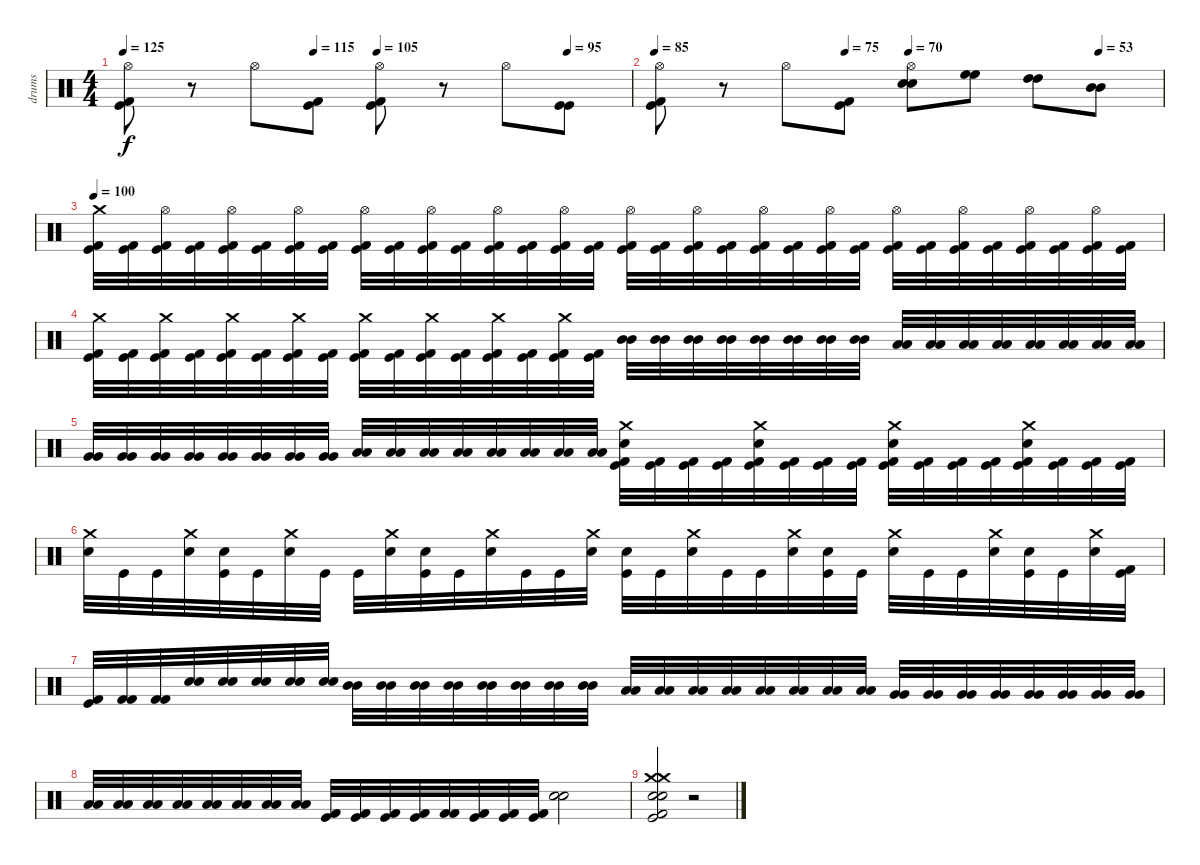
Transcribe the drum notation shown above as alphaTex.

\track ("drums" "drums") {instrument percussion}
\staff {score}
\articulation defaults
\ts (4 4)
\tempo 125
\tempo (115 0.375)
\tempo (105 0.5)
\tempo (95 0.875)
\clef neutral
\ks c
("Kick (hit)" "Kick (hit) 2" "Hi-Hat (open)").8{dy f} r.8 "Hi-Hat (open)".8 ("Kick (hit)" "Kick (hit) 2").8 ("Kick (hit)" "Kick (hit) 2" "Hi-Hat (open)").8 r.8 "Hi-Hat (open)".8 ("Kick (hit)" "Kick (hit)").8 |
\tempo 85
\tempo (75 0.375)
\tempo (70 0.5)
\tempo (53 0.875)
("Kick (hit)" "Kick (hit) 2" "Hi-Hat (open)").8 r.8 "Hi-Hat (open)".8 ("Kick (hit)" "Kick (hit) 2").8 ("Snare (hit) 2" "Snare (hit) 2" "Hi-Hat (open)").8 ("High Floor Tom (hit)" "High Floor Tom (hit)").8 ("High Tom (hit)" "High Tom (hit)").8 ("Mid Tom (hit)" "Mid Tom (hit)").8 |
\tempo 100
("Kick (hit)" "Kick (hit) 2" "Crash medium (hit)").32 ("Kick (hit)" "Kick (hit) 2").32 ("Kick (hit)" "Kick (hit) 2" "Hi-Hat (open)").32 ("Kick (hit)" "Kick (hit) 2").32 ("Kick (hit)" "Kick (hit) 2" "Hi-Hat (open)").32 ("Kick (hit)" "Kick (hit) 2").32 ("Kick (hit)" "Kick (hit) 2" "Hi-Hat (open)").32 ("Kick (hit)" "Kick (hit) 2").32 ("Kick (hit)" "Kick (hit) 2" "Hi-Hat (open)").32 ("Kick (hit)" "Kick (hit) 2").32 ("Kick (hit)" "Kick (hit) 2" "Hi-Hat (open)").32 ("Kick (hit)" "Kick (hit) 2").32 ("Kick (hit)" "Kick (hit) 2" "Hi-Hat (open)").32 ("Kick (hit)" "Kick (hit) 2").32 ("Kick (hit)" "Kick (hit) 2" "Hi-Hat (open)").32 ("Kick (hit)" "Kick (hit) 2").32 ("Kick (hit)" "Kick (hit) 2" "Hi-Hat (open)").32 ("Kick (hit)" "Kick (hit) 2").32 ("Kick (hit)" "Kick (hit) 2" "Hi-Hat (open)").32 ("Kick (hit)" "Kick (hit) 2").32 ("Kick (hit)" "Kick (hit) 2" "Hi-Hat (open)").32 ("Kick (hit)" "Kick (hit) 2").32 ("Kick (hit)" "Kick (hit) 2" "Hi-Hat (open)").32 ("Kick (hit)" "Kick (hit) 2").32 ("Kick (hit)" "Kick (hit) 2" "Hi-Hat (open)").32 ("Kick (hit)" "Kick (hit) 2").32 ("Kick (hit)" "Kick (hit) 2" "Hi-Hat (open)").32 ("Kick (hit)" "Kick (hit) 2").32 ("Kick (hit)" "Kick (hit) 2" "Hi-Hat (open)").32 ("Kick (hit)" "Kick (hit) 2").32 ("Kick (hit)" "Kick (hit) 2" "Hi-Hat (open)").32 ("Kick (hit)" "Kick (hit) 2").32 |
("Kick (hit)" "Kick (hit) 2" "Crash medium (hit)").32 ("Kick (hit)" "Kick (hit) 2").32 ("Kick (hit)" "Kick (hit) 2" "Crash medium (hit)").32 ("Kick (hit)" "Kick (hit) 2").32 ("Kick (hit)" "Kick (hit) 2" "Crash medium (hit)").32 ("Kick (hit)" "Kick (hit) 2").32 ("Kick (hit)" "Kick (hit) 2" "Crash medium (hit)").32 ("Kick (hit)" "Kick (hit) 2").32 ("Kick (hit)" "Kick (hit) 2" "Crash medium (hit)").32 ("Kick (hit)" "Kick (hit) 2").32 ("Kick (hit)" "Kick (hit) 2" "Crash medium (hit)").32 ("Kick (hit)" "Kick (hit) 2").32 ("Kick (hit)" "Kick (hit) 2" "Crash medium (hit)").32 ("Kick (hit)" "Kick (hit) 2").32 ("Kick (hit)" "Kick (hit) 2" "Crash medium (hit)").32 ("Kick (hit)" "Kick (hit) 2").32 ("Mid Tom (hit)" "Mid Tom (hit)").32 ("Mid Tom (hit)" "Mid Tom (hit)").32 ("Mid Tom (hit)" "Mid Tom (hit)").32 ("Mid Tom (hit)" "Mid Tom (hit)").32 ("Mid Tom (hit)" "Mid Tom (hit)").32 ("Mid Tom (hit)" "Mid Tom (hit)").32 ("Mid Tom (hit)" "Mid Tom (hit)").32 ("Mid Tom (hit)" "Mid Tom (hit)").32 ("Low Tom (hit)" "Low Tom (hit)").32 ("Low Tom (hit)" "Low Tom (hit)").32 ("Low Tom (hit)" "Low Tom (hit)").32 ("Low Tom (hit)" "Low Tom (hit)").32 ("Low Tom (hit)" "Low Tom (hit)").32 ("Low Tom (hit)" "Low Tom (hit)").32 ("Low Tom (hit)" "Low Tom (hit)").32 ("Low Tom (hit)" "Low Tom (hit)").32 |
("Very Low Tom (hit)" "Very Low Tom (hit)").32 ("Very Low Tom (hit)" "Very Low Tom (hit)").32 ("Very Low Tom (hit)" "Very Low Tom (hit)").32 ("Very Low Tom (hit)" "Very Low Tom (hit)").32 ("Very Low Tom (hit)" "Very Low Tom (hit)").32 ("Very Low Tom (hit)" "Very Low Tom (hit)").32 ("Very Low Tom (hit)" "Very Low Tom (hit)").32 ("Very Low Tom (hit)" "Very Low Tom (hit)").32 ("Low Floor Tom (hit)" "Low Floor Tom (hit)").32 ("Low Floor Tom (hit)" "Low Floor Tom (hit)").32 ("Low Floor Tom (hit)" "Low Floor Tom (hit)").32 ("Low Floor Tom (hit)" "Low Floor Tom (hit)").32 ("Low Floor Tom (hit)" "Low Floor Tom (hit)").32 ("Low Floor Tom (hit)" "Low Floor Tom (hit)").32 ("Low Floor Tom (hit)" "Low Floor Tom (hit)").32 ("Low Floor Tom (hit)" "Low Floor Tom (hit)").32 ("Kick (hit)" "Kick (hit) 2" "Snare (hit) 2" "Crash medium (hit)").32 ("Kick (hit)" "Kick (hit) 2").32 ("Kick (hit)" "Kick (hit) 2").32 ("Kick (hit)" "Kick (hit) 2").32 ("Kick (hit)" "Kick (hit) 2" "Snare (hit) 2" "Crash medium (hit)").32 ("Kick (hit)" "Kick (hit) 2").32 ("Kick (hit)" "Kick (hit) 2").32 ("Kick (hit)" "Kick (hit) 2").32 ("Kick (hit)" "Kick (hit) 2" "Snare (hit) 2" "Crash medium (hit)").32 ("Kick (hit)" "Kick (hit) 2").32 ("Kick (hit)" "Kick (hit) 2").32 ("Kick (hit)" "Kick (hit) 2").32 ("Kick (hit)" "Kick (hit) 2" "Snare (hit) 2" "Crash medium (hit)").32 ("Kick (hit)" "Kick (hit) 2").32 ("Kick (hit)" "Kick (hit) 2").32 ("Kick (hit)" "Kick (hit) 2").32 |
("Snare (hit) 2" "Crash medium (hit)").32 "Kick (hit)".32 "Kick (hit)".32 ("Snare (hit) 2" "Crash medium (hit)").32 ("Kick (hit)" "Snare (hit) 2").32 "Kick (hit)".32 ("Snare (hit) 2" "Crash medium (hit)").32 "Kick (hit)".32 "Kick (hit)".32 ("Snare (hit) 2" "Crash medium (hit)").32 ("Kick (hit)" "Snare (hit) 2").32 "Kick (hit)".32 ("Snare (hit) 2" "Crash medium (hit)").32 "Kick (hit)".32 "Kick (hit)".32 ("Snare (hit) 2" "Crash medium (hit)").32 ("Kick (hit)" "Snare (hit) 2").32 "Kick (hit)".32 ("Snare (hit) 2" "Crash medium (hit)").32 "Kick (hit)".32 "Kick (hit)".32 ("Snare (hit) 2" "Crash medium (hit)").32 ("Kick (hit)" "Snare (hit) 2").32 "Kick (hit)".32 ("Snare (hit) 2" "Crash medium (hit)").32 "Kick (hit)".32 "Kick (hit)".32 ("Snare (hit) 2" "Crash medium (hit)").32 ("Kick (hit)" "Snare (hit) 2").32 "Kick (hit)".32 ("Snare (hit) 2" "Crash medium (hit)").32 ("Kick (hit)" "Kick (hit) 2").32 |
("Kick (hit)" "Kick (hit) 2").32 ("Kick (hit) 2" "Kick (hit) 2").32 ("Kick (hit) 2" "Kick (hit) 2").32 ("Snare (hit) 2" "Snare (hit) 2").32 ("Snare (hit) 2" "Snare (hit) 2").32 ("Snare (hit) 2" "Snare (hit) 2").32 ("Snare (hit) 2" "Snare (hit) 2").32 ("Snare (hit) 2" "Snare (hit) 2").32 ("Mid Tom (hit)" "Mid Tom (hit)").32 ("Mid Tom (hit)" "Mid Tom (hit)").32 ("Mid Tom (hit)" "Mid Tom (hit)").32 ("Mid Tom (hit)" "Mid Tom (hit)").32 ("Mid Tom (hit)" "Mid Tom (hit)").32 ("Mid Tom (hit)" "Mid Tom (hit)").32 ("Mid Tom (hit)" "Mid Tom (hit)").32 ("Mid Tom (hit)" "Mid Tom (hit)").32 ("Low Tom (hit)" "Low Tom (hit)").32 ("Low Tom (hit)" "Low Tom (hit)").32 ("Low Tom (hit)" "Low Tom (hit)").32 ("Low Tom (hit)" "Low Tom (hit)").32 ("Low Tom (hit)" "Low Tom (hit)").32 ("Low Tom (hit)" "Low Tom (hit)").32 ("Low Tom (hit)" "Low Tom (hit)").32 ("Low Tom (hit)" "Low Tom (hit)").32 ("Very Low Tom (hit)" "Very Low Tom (hit)").32 ("Very Low Tom (hit)" "Very Low Tom (hit)").32 ("Very Low Tom (hit)" "Very Low Tom (hit)").32 ("Very Low Tom (hit)" "Very Low Tom (hit)").32 ("Very Low Tom (hit)" "Very Low Tom (hit)").32 ("Very Low Tom (hit)" "Very Low Tom (hit)").32 ("Very Low Tom (hit)" "Very Low Tom (hit)").32 ("Very Low Tom (hit)" "Very Low Tom (hit)").32 |
("Low Floor Tom (hit)" "Low Floor Tom (hit)").32 ("Low Floor Tom (hit)" "Low Floor Tom (hit)").32 ("Low Floor Tom (hit)" "Low Floor Tom (hit)").32 ("Low Floor Tom (hit)" "Low Floor Tom (hit)").32 ("Low Floor Tom (hit)" "Low Floor Tom (hit)").32 ("Low Floor Tom (hit)" "Low Floor Tom (hit)").32 ("Low Floor Tom (hit)" "Low Floor Tom (hit)").32 ("Low Floor Tom (hit)" "Low Floor Tom (hit)").32 ("Kick (hit)" "Kick (hit) 2").32 ("Kick (hit)" "Kick (hit) 2").32 ("Kick (hit)" "Kick (hit) 2").32 ("Kick (hit)" "Kick (hit) 2").32 ("Kick (hit) 2" "Kick (hit) 2").32 ("Kick (hit)" "Kick (hit) 2").32 ("Kick (hit)" "Kick (hit) 2").32 ("Kick (hit)" "Kick (hit) 2").32 ("Snare (hit) 2" "Snare (hit) 2").2 |
("Kick (hit)" "Kick (hit) 2" "Snare (hit) 2" "Electric Snare (hit)" "Crash medium (hit)" "Crash medium (hit)").2 r.2
